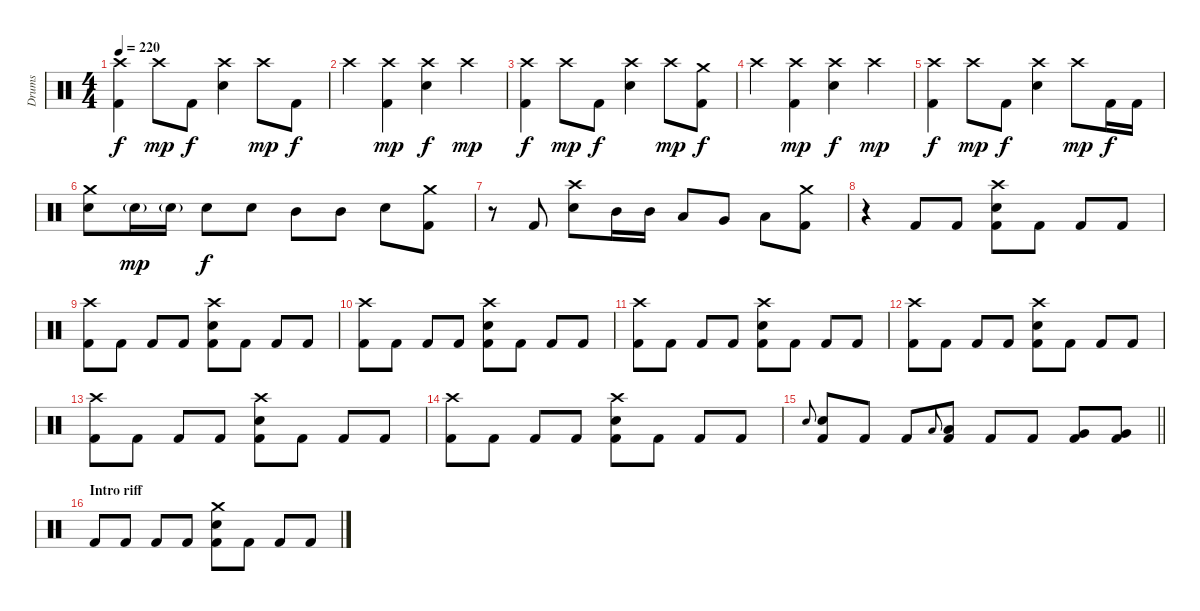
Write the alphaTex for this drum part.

\track ("Drums" "Drums") {instrument percussion}
\staff {score}
\articulation defaults
\ts (4 4)
\tempo 220
\clef neutral
\ks c
("Crash high (hit)" "Kick (hit) 2").4{dy f} "Crash high (hit)".8{dy mp} "Kick (hit) 2".8{dy f} ("Electric Snare (hit)" "Crash high (hit)").4 "Crash high (hit)".8{dy mp} "Kick (hit) 2".8{dy f} |
"Crash high (hit)".4 ("Kick (hit) 2" "Crash high (hit)").4{dy mp} ("Electric Snare (hit)" "Crash high (hit)").4{dy f} "Crash high (hit)".4{dy mp} |
("Crash high (hit)" "Kick (hit) 2").4{dy f} "Crash high (hit)".8{dy mp} "Kick (hit) 2".8{dy f} ("Electric Snare (hit)" "Crash high (hit)").4 "Crash high (hit)".8{dy mp} ("Kick (hit) 2" "Crash medium (hit)").8{dy f} |
"Crash high (hit)".4 ("Kick (hit) 2" "Crash high (hit)").4{dy mp} ("Electric Snare (hit)" "Crash high (hit)").4{dy f} "Crash high (hit)".4{dy mp} |
("Crash high (hit)" "Kick (hit) 2").4{dy f} "Crash high (hit)".8{dy mp} "Kick (hit) 2".8{dy f} ("Electric Snare (hit)" "Crash high (hit)").4 "Crash high (hit)".8{dy mp} "Kick (hit) 2".16{dy f} "Kick (hit) 2".16 |
("Electric Snare (hit)" "Crash medium (hit)").8 "Electric Snare (hit)"{g}.16{dy mp} "Electric Snare (hit)"{g}.16 "Electric Snare (hit)".8{dy f} "Electric Snare (hit)".8 "Mid Tom (hit)".8 "Mid Tom (hit)".8 "Electric Snare (hit)".8 ("Kick (hit) 2" "Crash medium (hit)").8 |
r.8 "Kick (hit) 2".8 ("Electric Snare (hit)" "Crash high (hit)").8 "Mid Tom (hit)".16 "Mid Tom (hit)".16 "Low Tom (hit)".8 "Very Low Tom (hit)".8 "Low Floor Tom (hit)".8 ("Crash medium (hit)" "Kick (hit) 2").8 |
r.4 "Kick (hit) 2".8 "Kick (hit) 2".8 ("Crash high (hit)" "Kick (hit) 2" "Electric Snare (hit)").8 "Kick (hit) 2".8 "Kick (hit) 2".8 "Kick (hit) 2".8 |
("Crash high (hit)" "Kick (hit) 2").8 "Kick (hit) 2".8 "Kick (hit) 2".8 "Kick (hit) 2".8 ("Crash high (hit)" "Electric Snare (hit)" "Kick (hit) 2").8 "Kick (hit) 2".8 "Kick (hit) 2".8 "Kick (hit) 2".8 |
("Crash high (hit)" "Kick (hit) 2").8 "Kick (hit) 2".8 "Kick (hit) 2".8 "Kick (hit) 2".8 ("Crash high (hit)" "Electric Snare (hit)" "Kick (hit) 2").8 "Kick (hit) 2".8 "Kick (hit) 2".8 "Kick (hit) 2".8 |
("Crash high (hit)" "Kick (hit) 2").8 "Kick (hit) 2".8 "Kick (hit) 2".8 "Kick (hit) 2".8 ("Crash high (hit)" "Electric Snare (hit)" "Kick (hit) 2").8 "Kick (hit) 2".8 "Kick (hit) 2".8 "Kick (hit) 2".8 |
("Crash high (hit)" "Kick (hit) 2").8 "Kick (hit) 2".8 "Kick (hit) 2".8 "Kick (hit) 2".8 ("Crash high (hit)" "Electric Snare (hit)" "Kick (hit) 2").8 "Kick (hit) 2".8 "Kick (hit) 2".8 "Kick (hit) 2".8 |
("Crash high (hit)" "Kick (hit) 2").8 "Kick (hit) 2".8 "Kick (hit) 2".8 "Kick (hit) 2".8 ("Crash high (hit)" "Electric Snare (hit)" "Kick (hit) 2").8 "Kick (hit) 2".8 "Kick (hit) 2".8 "Kick (hit) 2".8 |
("Crash high (hit)" "Kick (hit) 2").8 "Kick (hit) 2".8 "Kick (hit) 2".8 "Kick (hit) 2".8 ("Crash high (hit)" "Electric Snare (hit)" "Kick (hit) 2").8 "Kick (hit) 2".8 "Kick (hit) 2".8 "Kick (hit) 2".8 |
\barLineRight lightlight "Electric Snare (hit)".8{gr onbeat}
("Kick (hit) 2" "Electric Snare (hit)").8 "Kick (hit) 2".8 "Kick (hit) 2".8 "Low Tom (hit)".8{gr onbeat} ("Kick (hit) 2" "Low Tom (hit)").8 "Kick (hit) 2".8 "Kick (hit) 2".8 ("Kick (hit) 2" "Very Low Tom (hit)").8 ("Kick (hit) 2" "Very Low Tom (hit)").8 |
\section ("" "Intro riff")
"Kick (hit) 2".8 "Kick (hit) 2".8 "Kick (hit) 2".8 "Kick (hit) 2".8 ("Crash medium (hit)" "Electric Snare (hit)" "Kick (hit) 2").8 "Kick (hit) 2".8 "Kick (hit) 2".8 "Kick (hit) 2".8
